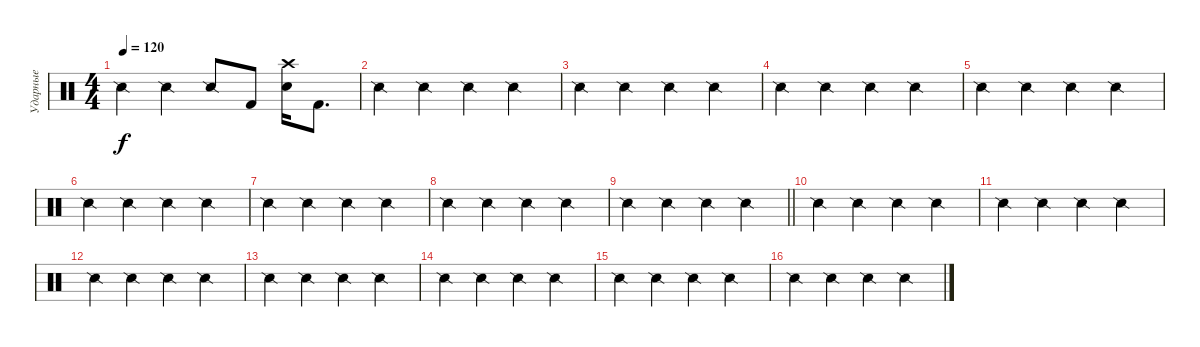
\track ("Ударные" "Ударные") {mute instrument percussion}
\staff {score}
\articulation defaults
\ts (4 4)
\tempo 120
\clef neutral
\ks c "Snare (side stick) 2".4{dy f} "Snare (side stick) 2".4 "Snare (side stick) 2".8 "Kick (hit) 2".8
("Crash high (hit)" "Electric Snare (hit)").16 "Kick (hit) 2".8{d} |
"Snare (side stick) 2".4 "Snare (side stick) 2".4 "Snare (side stick) 2".4 "Snare (side stick) 2".4 |
"Snare (side stick) 2".4 "Snare (side stick) 2".4 "Snare (side stick) 2".4 "Snare (side stick) 2".4 |
"Snare (side stick) 2".4 "Snare (side stick) 2".4 "Snare (side stick) 2".4 "Snare (side stick) 2".4 |
"Snare (side stick) 2".4 "Snare (side stick) 2".4 "Snare (side stick) 2".4 "Snare (side stick) 2".4 |
"Snare (side stick) 2".4 "Snare (side stick) 2".4 "Snare (side stick) 2".4 "Snare (side stick) 2".4 |
"Snare (side stick) 2".4 "Snare (side stick) 2".4 "Snare (side stick) 2".4 "Snare (side stick) 2".4 |
"Snare (side stick) 2".4 "Snare (side stick) 2".4 "Snare (side stick) 2".4 "Snare (side stick) 2".4 |
\barLineRight lightlight "Snare (side stick) 2".4 "Snare (side stick) 2".4 "Snare (side stick) 2".4 "Snare (side stick) 2".4
|
"Snare (side stick) 2".4 "Snare (side stick) 2".4 "Snare (side stick) 2".4 "Snare (side stick) 2".4 |
"Snare (side stick) 2".4 "Snare (side stick) 2".4 "Snare (side stick) 2".4 "Snare (side stick) 2".4 |
"Snare (side stick) 2".4 "Snare (side stick) 2".4 "Snare (side stick) 2".4 "Snare (side stick) 2".4 |
"Snare (side stick) 2".4 "Snare (side stick) 2".4 "Snare (side stick) 2".4 "Snare (side stick) 2".4 |
"Snare (side stick) 2".4 "Snare (side stick) 2".4 "Snare (side stick) 2".4 "Snare (side stick) 2".4 |
"Snare (side stick) 2".4 "Snare (side stick) 2".4 "Snare (side stick) 2".4 "Snare (side stick) 2".4 |
"Snare (side stick) 2".4 "Snare (side stick) 2".4 "Snare (side stick) 2".4 "Snare (side stick) 2".4
